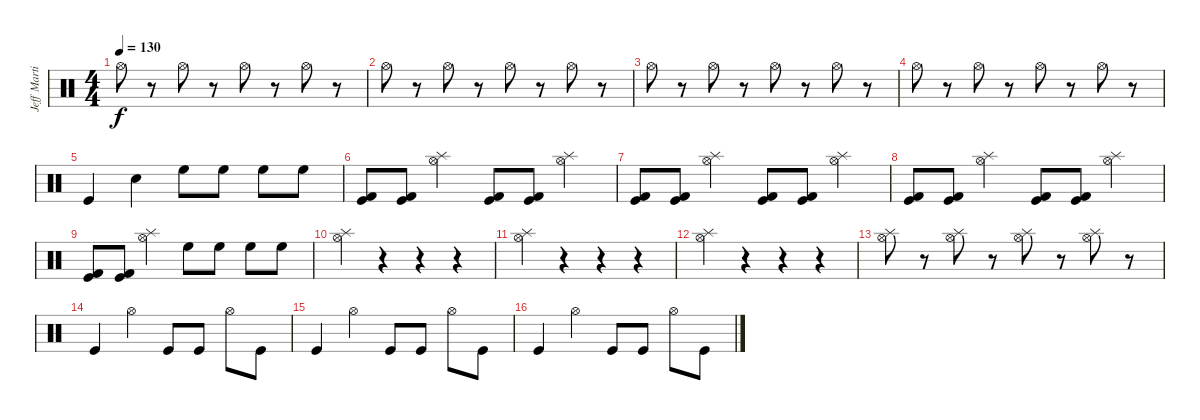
\track ("Jeff Martin" "Jeff Marti") {instrument percussion}
\staff {score}
\articulation defaults
\ts (4 4)
\tempo 130
\clef neutral
\ks c "Hi-Hat (open)".8{dy f}
r.8 "Hi-Hat (open)".8 r.8 "Hi-Hat (open)".8 r.8 "Hi-Hat (open)".8 r.8 |
"Hi-Hat (open)".8 r.8 "Hi-Hat (open)".8 r.8 "Hi-Hat (open)".8 r.8 "Hi-Hat (open)".8 r.8 |
"Hi-Hat (open)".8 r.8 "Hi-Hat (open)".8 r.8 "Hi-Hat (open)".8 r.8 "Hi-Hat (open)".8 r.8 |
"Hi-Hat (open)".8 r.8 "Hi-Hat (open)".8 r.8 "Hi-Hat (open)".8 r.8 "Hi-Hat (open)".8 r.8 |
"Kick (hit)".4 "Snare (hit) 2".4 "High Floor Tom (hit)".8 "High Floor Tom (hit)".8 "High Floor Tom (hit)".8 "High Floor Tom (hit)".8 |
("Kick (hit) 2" "Kick (hit)").8 ("Kick (hit) 2" "Kick (hit)").8 ("Splash (hit)" "Hi-Hat (open)").4 ("Kick (hit) 2" "Kick (hit)").8 ("Kick (hit) 2" "Kick (hit)").8 ("Splash (hit)" "Hi-Hat (open)").4 |
("Kick (hit) 2" "Kick (hit)").8 ("Kick (hit) 2" "Kick (hit)").8 ("Splash (hit)" "Hi-Hat (open)").4 ("Kick (hit) 2" "Kick (hit)").8 ("Kick (hit) 2" "Kick (hit)").8 ("Splash (hit)" "Hi-Hat (open)").4 |
("Kick (hit) 2" "Kick (hit)").8 ("Kick (hit) 2" "Kick (hit)").8 ("Splash (hit)" "Hi-Hat (open)").4 ("Kick (hit) 2" "Kick (hit)").8 ("Kick (hit) 2" "Kick (hit)").8 ("Splash (hit)" "Hi-Hat (open)").4 |
("Kick (hit) 2" "Kick (hit)").8 ("Kick (hit) 2" "Kick (hit)").8 ("Splash (hit)" "Hi-Hat (open)").4 "High Floor Tom (hit)".8 "High Floor Tom (hit)".8 "High Floor Tom (hit)".8 "High Floor Tom (hit)".8 |
("Hi-Hat (open)" "Splash (hit)").4 r.4 r.4 r.4 |
("Hi-Hat (open)" "Splash (hit)").4 r.4 r.4 r.4 |
("Hi-Hat (open)" "Splash (hit)").4 r.4 r.4 r.4 |
("Hi-Hat (open)" "Splash (hit)").8 r.8 ("Hi-Hat (open)" "Splash (hit)").8 r.8 ("Hi-Hat (open)" "Splash (hit)").8 r.8 ("Hi-Hat (open)" "Splash (hit)").8 r.8 |
"Kick (hit)".4 "Hi-Hat (open)".4 "Kick (hit)".8 "Kick (hit)".8 "Hi-Hat (open)".8 "Kick (hit)".8 |
"Kick (hit)".4 "Hi-Hat (open)".4 "Kick (hit)".8 "Kick (hit)".8 "Hi-Hat (open)".8 "Kick (hit)".8 |
"Kick (hit)".4 "Hi-Hat (open)".4 "Kick (hit)".8 "Kick (hit)".8 "Hi-Hat (open)".8 "Kick (hit)".8
